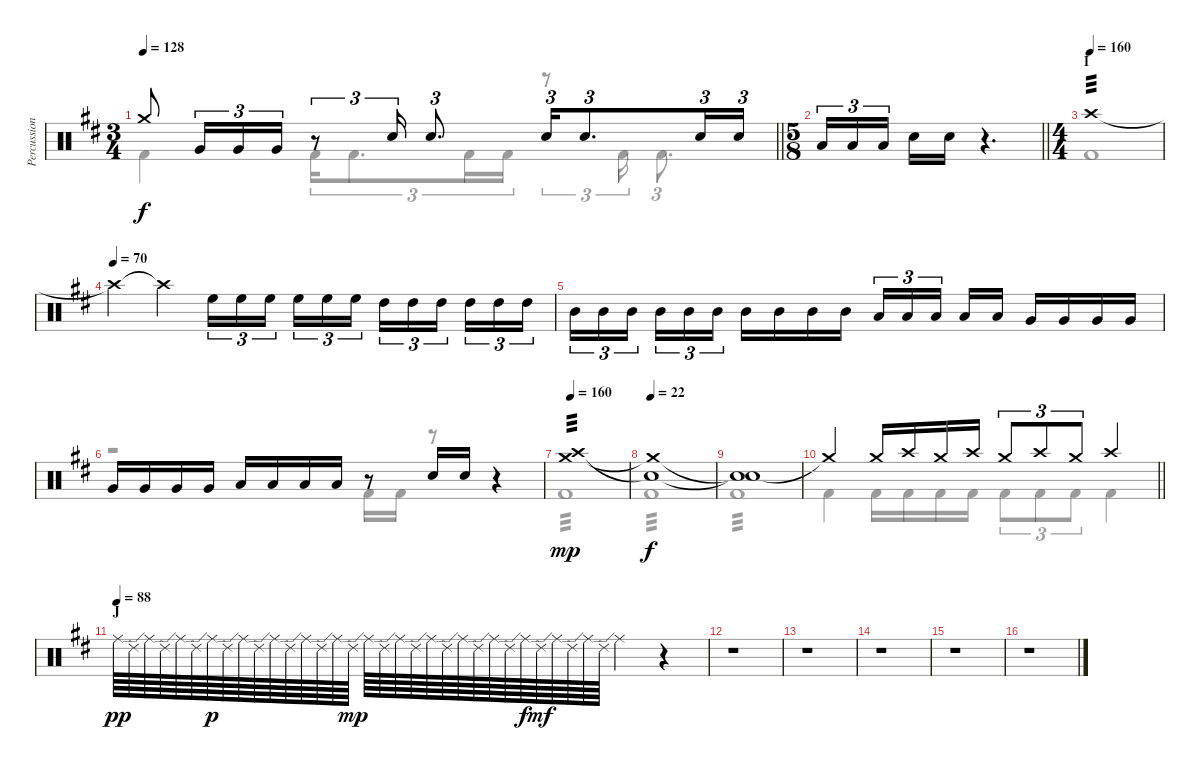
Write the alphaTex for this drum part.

\track ("Percussion" "Percussion") {instrument percussion}
\staff {score}
\articulation defaults
\voice
\ts (3 4)
\tempo 128
\clef neutral
\barLineRight lightlight
\ks d "Crash medium (hit)".8{dy f} "Very Low Tom (hit)".16{tu (3 2)} "Very Low Tom (hit)".16{tu (3 2)} "Very Low Tom (hit)".16{tu (3 2)}
r.8{tu (3 2)} "Electric Snare (hit)".16{tu (3 2)} "Electric Snare (hit)".8{d tu (3 2)} "Electric Snare (hit)".16{tu (3 2)} "Electric Snare (hit)".8{d tu (3 2)} "Electric Snare (hit)".16{tu (3 2)} "Electric Snare (hit)".16{tu (3 2)} |
\ts (5 8)
\barLineRight lightlight "Low Tom (hit)".16{tu (3 2)} "Low Tom (hit)".16{tu (3 2)} "Low Tom (hit)".16{tu (3 2)} "Electric Snare (hit)".16 "Electric Snare (hit)".16
r.4{d volume 7} |
\ts (4 4)
\section ("" "I")
\tempo (160)
"Crash high (hit)".1{tp 3 volume 16} |
\tempo (70)
"Crash high (hit)"{t}.4 "Crash high (hit)"{t}.4 "High Floor Tom (hit)".16{tu (3 2)} "High Floor Tom (hit)".16{tu (3 2)} "High Floor Tom (hit)".16{tu (3 2) beam splitsecondary} "High Floor Tom (hit)".16{tu (3 2)} "High Floor Tom (hit)".16{tu (3 2)} "High Floor Tom (hit)".16{tu (3 2)} "High Tom (hit)".16{tu (3 2)} "High Tom (hit)".16{tu (3 2)} "High Tom (hit)".16{tu (3 2) beam splitsecondary} "High Tom (hit)".16{tu (3 2)} "High Tom (hit)".16{tu (3 2)} "High Tom (hit)".16{tu (3 2)} |
"Mid Tom (hit)".16{tu (3 2)} "Mid Tom (hit)".16{tu (3 2)} "Mid Tom (hit)".16{tu (3 2) beam splitsecondary} "Mid Tom (hit)".16{tu (3 2)} "Mid Tom (hit)".16{tu (3 2)} "Mid Tom (hit)".16{tu (3 2)} "Mid Tom (hit)".16 "Mid Tom (hit)".16 "Mid Tom (hit)".16 "Mid Tom (hit)".16 "Low Tom (hit)".16{tu (3 2)} "Low Tom (hit)".16{tu (3 2)} "Low Tom (hit)".16{tu (3 2) beam splitsecondary} "Low Tom (hit)".16 "Low Tom (hit)".16 "Very Low Tom (hit)".16 "Very Low Tom (hit)".16 "Very Low Tom (hit)".16 "Very Low Tom (hit)".16 |
"Very Low Tom (hit)".16 "Very Low Tom (hit)".16 "Very Low Tom (hit)".16 "Very Low Tom (hit)".16 "Low Floor Tom (hit)".16 "Low Floor Tom (hit)".16 "Low Floor Tom (hit)".16 "Low Floor Tom (hit)".16 r.8 "Electric Snare (hit)".16 "Electric Snare (hit)".16 r.4 |
\tempo 160
("Crash medium (hit)" "Crash high (hit)").1{tp 3 dy mp} |
\tempo 22
("Crash medium (hit)"{t} "Snare (hit)"{t}).1{dy f} |
("Snare (hit)"{t} "Snare (hit)"{t}).1 |
\barLineRight lightlight "Crash medium (hit)"{t}.4 "Crash medium (hit)".16 "Crash high (hit)".16 "Crash medium (hit)".16 "Crash high (hit)".16 "Crash medium (hit)".8{tu (3 2)} "Crash high (hit)".8{tu (3 2)} "Crash medium (hit)".8{tu (3 2)} "Crash high (hit)".4
|
\section ("" "J")
\tempo (88)
"Ride (middle)".64{dy pp} "Ride (edge) 2".64 "Ride (middle)".64 "Ride (edge) 2".64 "Ride (middle)".64 "Ride (edge) 2".64 "Ride (middle)".64{dy p} "Ride (edge) 2".64 "Ride (middle)".64 "Ride (edge) 2".64 "Ride (middle)".64 "Ride (edge) 2".64 "Ride (middle)".64 "Ride (edge) 2".64 "Ride (middle)".64 "Ride (edge) 2".64{dy mp} "Ride (middle)".64 "Ride (edge) 2".64 "Ride (middle)".64 "Ride (edge) 2".64 "Ride (middle)".64 "Ride (edge) 2".64 "Ride (middle)".64 "Ride (edge) 2".64 "Ride (middle)".64 "Ride (edge) 2".64 "Ride (middle)".64{dy f} "Ride (edge) 2".64{dy mf} "Ride (middle)".64 "Ride (edge) 2".64 "Ride (middle)".64 "Ride (edge) 2".64 "Ride (middle)".4 r.4 |
r.1 |
r.1 |
\ks bminor
r.1 |
r.1 |
r.1
\voice
\clef neutral
\ottava regular
\simile none
\barLineRight lightlight
\ks d "Kick (hit) 2".4{dy f} "Kick (hit) 2".16{tu (3 2)} "Kick (hit) 2".8{d tu (3 2)} "Kick (hit) 2".16{tu (3 2)} "Kick (hit) 2".16{tu (3 2)}
r.8{tu (3 2)} "Kick (hit) 2".16{tu (3 2)} "Kick (hit) 2".8{d tu (3 2)} |
\barLineRight lightlight
|
"Kick (hit) 2".1 |
|
|
r.2 "Kick (hit) 2".16 "Kick (hit) 2".16 r.8 r.4 |
"Kick (hit) 2".1{tp 3} |
"Kick (hit) 2".1{tp 3} |
"Kick (hit) 2".1{tp 3} |
\barLineRight lightlight "Kick (hit) 2".4 "Kick (hit) 2".16 "Kick (hit) 2".16 "Kick (hit) 2".16 "Kick (hit) 2".16 "Kick (hit) 2".8{tu (3 2)} "Kick (hit) 2".8{tu (3 2)} "Kick (hit) 2".8{tu (3 2)} "Kick (hit) 2".4
|
|
|
|
\ks bminor
|
|
